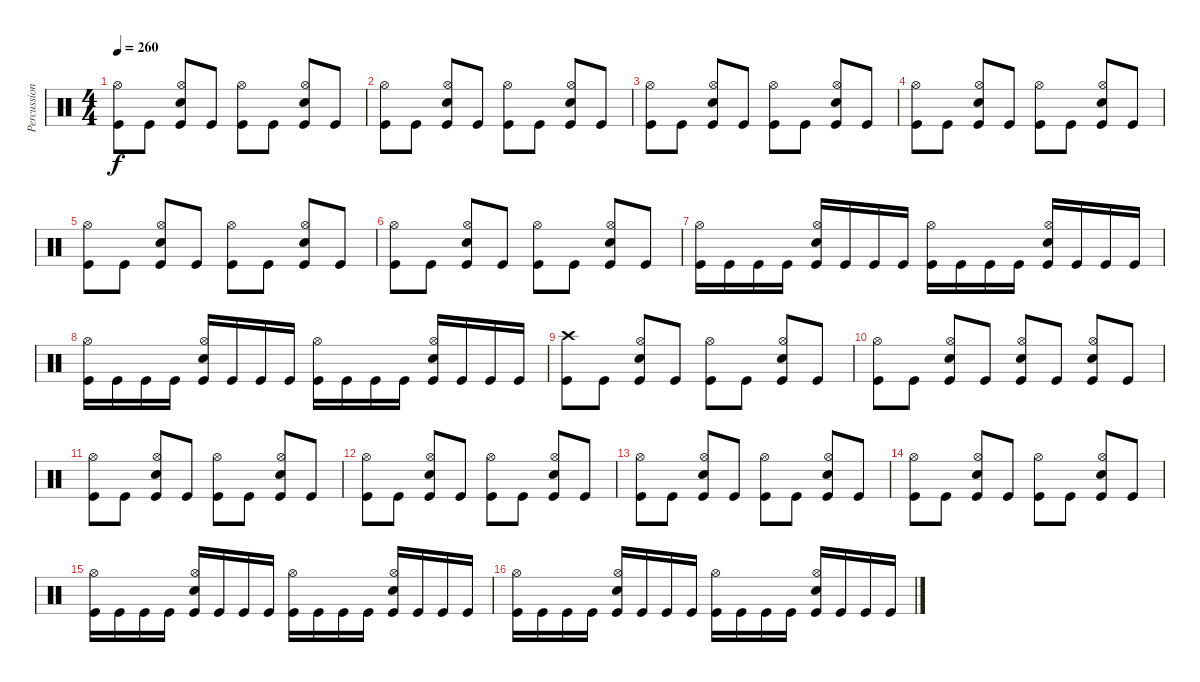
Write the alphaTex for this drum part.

\track ("Percussion" "Percussion") {instrument percussion}
\staff {score}
\articulation defaults
\ts (4 4)
\tempo 260
\clef neutral
\ks c
("Kick (hit)" "Hi-Hat (open)").8{dy f} "Kick (hit)".8 ("Kick (hit)" "Snare (hit) 2" "Hi-Hat (open)").8 "Kick (hit)".8 ("Kick (hit)" "Hi-Hat (open)").8 "Kick (hit)".8 ("Kick (hit)" "Snare (hit) 2" "Hi-Hat (open)").8 "Kick (hit)".8 |
("Kick (hit)" "Hi-Hat (open)").8 "Kick (hit)".8 ("Kick (hit)" "Snare (hit) 2" "Hi-Hat (open)").8 "Kick (hit)".8 ("Kick (hit)" "Hi-Hat (open)").8 "Kick (hit)".8 ("Kick (hit)" "Snare (hit) 2" "Hi-Hat (open)").8 "Kick (hit)".8 |
("Kick (hit)" "Hi-Hat (open)").8 "Kick (hit)".8 ("Kick (hit)" "Snare (hit) 2" "Hi-Hat (open)").8 "Kick (hit)".8 ("Kick (hit)" "Hi-Hat (open)").8 "Kick (hit)".8 ("Kick (hit)" "Snare (hit) 2" "Hi-Hat (open)").8 "Kick (hit)".8 |
("Kick (hit)" "Hi-Hat (open)").8 "Kick (hit)".8 ("Kick (hit)" "Snare (hit) 2" "Hi-Hat (open)").8 "Kick (hit)".8 ("Kick (hit)" "Hi-Hat (open)").8 "Kick (hit)".8 ("Kick (hit)" "Snare (hit) 2" "Hi-Hat (open)").8 "Kick (hit)".8 |
("Kick (hit)" "Hi-Hat (open)").8 "Kick (hit)".8 ("Kick (hit)" "Snare (hit) 2" "Hi-Hat (open)").8 "Kick (hit)".8 ("Kick (hit)" "Hi-Hat (open)").8 "Kick (hit)".8 ("Kick (hit)" "Snare (hit) 2" "Hi-Hat (open)").8 "Kick (hit)".8 |
("Kick (hit)" "Hi-Hat (open)").8 "Kick (hit)".8 ("Kick (hit)" "Snare (hit) 2" "Hi-Hat (open)").8 "Kick (hit)".8 ("Kick (hit)" "Hi-Hat (open)").8 "Kick (hit)".8 ("Kick (hit)" "Snare (hit) 2" "Hi-Hat (open)").8 "Kick (hit)".8 |
("Kick (hit)" "Hi-Hat (open)").16 "Kick (hit)".16 "Kick (hit)".16 "Kick (hit)".16 ("Kick (hit)" "Snare (hit) 2" "Hi-Hat (open)").16 "Kick (hit)".16 "Kick (hit)".16 "Kick (hit)".16 ("Kick (hit)" "Hi-Hat (open)").16 "Kick (hit)".16 "Kick (hit)".16 "Kick (hit)".16 ("Kick (hit)" "Snare (hit) 2" "Hi-Hat (open)").16 "Kick (hit)".16 "Kick (hit)".16 "Kick (hit)".16 |
("Kick (hit)" "Hi-Hat (open)").16 "Kick (hit)".16 "Kick (hit)".16 "Kick (hit)".16 ("Kick (hit)" "Snare (hit) 2" "Hi-Hat (open)").16 "Kick (hit)".16 "Kick (hit)".16 "Kick (hit)".16 ("Kick (hit)" "Hi-Hat (open)").16 "Kick (hit)".16 "Kick (hit)".16 "Kick (hit)".16 ("Kick (hit)" "Snare (hit) 2" "Hi-Hat (open)").16 "Kick (hit)".16 "Kick (hit)".16 "Kick (hit)".16 |
("Kick (hit)" "Crash high (hit)").8 "Kick (hit)".8 ("Kick (hit)" "Snare (hit) 2" "Hi-Hat (open)").8 "Kick (hit)".8 ("Kick (hit)" "Hi-Hat (open)").8 "Kick (hit)".8 ("Kick (hit)" "Snare (hit) 2" "Hi-Hat (open)").8 "Kick (hit)".8 |
("Kick (hit)" "Hi-Hat (open)").8 "Kick (hit)".8 ("Kick (hit)" "Snare (hit) 2" "Hi-Hat (open)").8 "Kick (hit)".8 ("Kick (hit)" "Snare (hit) 2" "Hi-Hat (open)").8 "Kick (hit)".8 ("Kick (hit)" "Snare (hit) 2" "Hi-Hat (open)").8 "Kick (hit)".8 |
("Kick (hit)" "Hi-Hat (open)").8 "Kick (hit)".8 ("Kick (hit)" "Snare (hit) 2" "Hi-Hat (open)").8 "Kick (hit)".8 ("Kick (hit)" "Hi-Hat (open)").8 "Kick (hit)".8 ("Kick (hit)" "Snare (hit) 2" "Hi-Hat (open)").8 "Kick (hit)".8 |
("Kick (hit)" "Hi-Hat (open)").8 "Kick (hit)".8 ("Kick (hit)" "Snare (hit) 2" "Hi-Hat (open)").8 "Kick (hit)".8 ("Kick (hit)" "Hi-Hat (open)").8 "Kick (hit)".8 ("Kick (hit)" "Snare (hit) 2" "Hi-Hat (open)").8 "Kick (hit)".8 |
("Kick (hit)" "Hi-Hat (open)").8 "Kick (hit)".8 ("Kick (hit)" "Snare (hit) 2" "Hi-Hat (open)").8 "Kick (hit)".8 ("Kick (hit)" "Hi-Hat (open)").8 "Kick (hit)".8 ("Kick (hit)" "Snare (hit) 2" "Hi-Hat (open)").8 "Kick (hit)".8 |
("Kick (hit)" "Hi-Hat (open)").8 "Kick (hit)".8 ("Kick (hit)" "Snare (hit) 2" "Hi-Hat (open)").8 "Kick (hit)".8 ("Kick (hit)" "Hi-Hat (open)").8 "Kick (hit)".8 ("Kick (hit)" "Snare (hit) 2" "Hi-Hat (open)").8 "Kick (hit)".8 |
("Kick (hit)" "Hi-Hat (open)").16 "Kick (hit)".16 "Kick (hit)".16 "Kick (hit)".16 ("Kick (hit)" "Snare (hit) 2" "Hi-Hat (open)").16 "Kick (hit)".16 "Kick (hit)".16 "Kick (hit)".16 ("Kick (hit)" "Hi-Hat (open)").16 "Kick (hit)".16 "Kick (hit)".16 "Kick (hit)".16 ("Kick (hit)" "Snare (hit) 2" "Hi-Hat (open)").16 "Kick (hit)".16 "Kick (hit)".16 "Kick (hit)".16 |
("Kick (hit)" "Hi-Hat (open)").16 "Kick (hit)".16 "Kick (hit)".16 "Kick (hit)".16 ("Kick (hit)" "Snare (hit) 2" "Hi-Hat (open)").16 "Kick (hit)".16 "Kick (hit)".16 "Kick (hit)".16 ("Kick (hit)" "Hi-Hat (open)").16 "Kick (hit)".16 "Kick (hit)".16 "Kick (hit)".16 ("Kick (hit)" "Snare (hit) 2" "Hi-Hat (open)").16 "Kick (hit)".16 "Kick (hit)".16 "Kick (hit)".16
